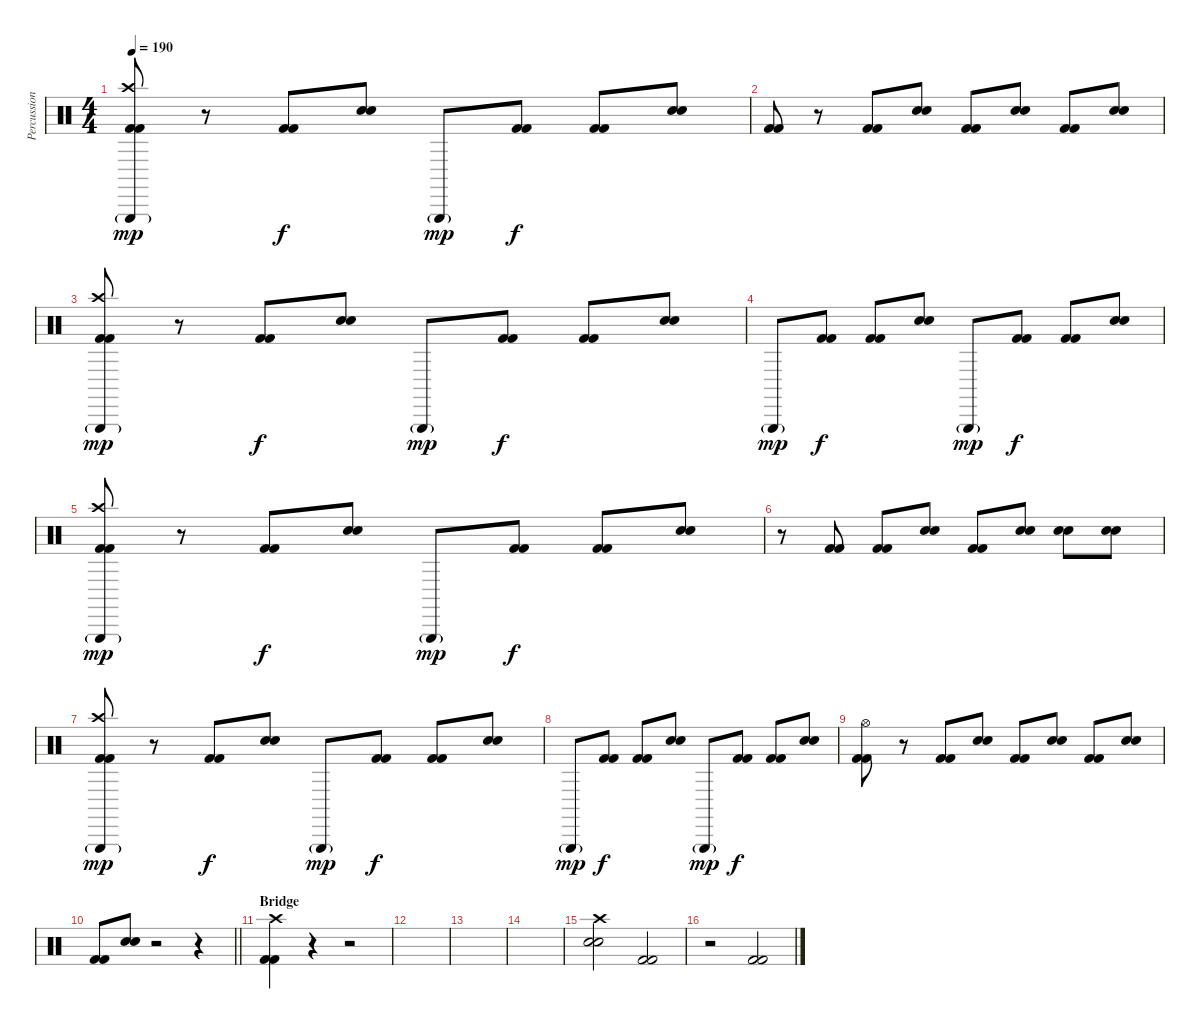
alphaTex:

\track ("Percussions" "Percussion") {instrument percussion}
\staff {score}
\articulation defaults
\ts (4 4)
\tempo 190
\clef neutral
\ks c
("Kick (hit) 2" "Kick (hit) 2" "Crash high (hit)" "Triangle (hit)"{g}).8{dy mp} r.8 ("Kick (hit) 2" "Kick (hit) 2").8{dy f} ("Snare (hit) 2" "Snare (hit) 2").8 "Triangle (hit)"{g}.8{dy mp} ("Kick (hit) 2" "Kick (hit) 2").8{dy f} ("Kick (hit) 2" "Kick (hit) 2").8 ("Snare (hit) 2" "Snare (hit) 2").8 |
("Kick (hit) 2" "Kick (hit) 2").8 r.8 ("Kick (hit) 2" "Kick (hit) 2").8 ("Snare (hit) 2" "Snare (hit) 2").8 ("Kick (hit) 2" "Kick (hit) 2").8 ("Snare (hit) 2" "Snare (hit) 2").8 ("Kick (hit) 2" "Kick (hit) 2").8 ("Snare (hit) 2" "Snare (hit) 2").8 |
("Kick (hit) 2" "Kick (hit) 2" "Crash high (hit)" "Triangle (hit)"{g}).8{dy mp} r.8 ("Kick (hit) 2" "Kick (hit) 2").8{dy f} ("Snare (hit) 2" "Snare (hit) 2").8 "Triangle (hit)"{g}.8{dy mp} ("Kick (hit) 2" "Kick (hit) 2").8{dy f} ("Kick (hit) 2" "Kick (hit) 2").8 ("Snare (hit) 2" "Snare (hit) 2").8 |
"Triangle (hit)"{g}.8{dy mp} ("Kick (hit) 2" "Kick (hit) 2").8{dy f} ("Kick (hit) 2" "Kick (hit) 2").8 ("Snare (hit) 2" "Snare (hit) 2").8 "Triangle (hit)"{g}.8{dy mp} ("Kick (hit) 2" "Kick (hit) 2").8{dy f} ("Kick (hit) 2" "Kick (hit) 2").8 ("Snare (hit) 2" "Snare (hit) 2").8 |
("Kick (hit) 2" "Kick (hit) 2" "Crash high (hit)" "Triangle (hit)"{g}).8{dy mp} r.8 ("Kick (hit) 2" "Kick (hit) 2").8{dy f} ("Snare (hit) 2" "Snare (hit) 2").8 "Triangle (hit)"{g}.8{dy mp} ("Kick (hit) 2" "Kick (hit) 2").8{dy f} ("Kick (hit) 2" "Kick (hit) 2").8 ("Snare (hit) 2" "Snare (hit) 2").8 |
r.8 ("Kick (hit) 2" "Kick (hit) 2").8 ("Kick (hit) 2" "Kick (hit) 2").8 ("Snare (hit) 2" "Snare (hit) 2").8 ("Kick (hit) 2" "Kick (hit) 2").8 ("Snare (hit) 2" "Snare (hit) 2").8 ("Snare (hit) 2" "Snare (hit) 2").8 ("Snare (hit) 2" "Snare (hit) 2").8 |
("Kick (hit) 2" "Kick (hit) 2" "Crash high (hit)" "Triangle (hit)"{g}).8{dy mp} r.8 ("Kick (hit) 2" "Kick (hit) 2").8{dy f} ("Snare (hit) 2" "Snare (hit) 2").8 "Triangle (hit)"{g}.8{dy mp} ("Kick (hit) 2" "Kick (hit) 2").8{dy f} ("Kick (hit) 2" "Kick (hit) 2").8 ("Snare (hit) 2" "Snare (hit) 2").8 |
"Triangle (hit)"{g}.8{dy mp} ("Kick (hit) 2" "Kick (hit) 2").8{dy f} ("Kick (hit) 2" "Kick (hit) 2").8 ("Snare (hit) 2" "Snare (hit) 2").8 "Triangle (hit)"{g}.8{dy mp} ("Kick (hit) 2" "Kick (hit) 2").8{dy f} ("Kick (hit) 2" "Kick (hit) 2").8 ("Snare (hit) 2" "Snare (hit) 2").8 |
("Kick (hit) 2" "Kick (hit) 2" "Hi-Hat (open)").8 r.8 ("Kick (hit) 2" "Kick (hit) 2").8 ("Snare (hit) 2" "Snare (hit) 2").8 ("Kick (hit) 2" "Kick (hit) 2").8 ("Snare (hit) 2" "Snare (hit) 2").8 ("Kick (hit) 2" "Kick (hit) 2").8 ("Snare (hit) 2" "Snare (hit) 2").8 |
\barLineRight lightlight
("Kick (hit) 2" "Kick (hit) 2").8 ("Snare (hit) 2" "Snare (hit) 2").8 r.2 r.4 |
\section ("" "Bridge")
("Kick (hit) 2" "Kick (hit) 2" "Crash high (hit)").4 r.4 r.2 |
|
|
|
("Snare (hit) 2" "Snare (hit) 2" "Crash high (hit)").2 ("Kick (hit) 2" "Kick (hit) 2").2 |
r.2 ("Kick (hit) 2" "Kick (hit) 2").2
